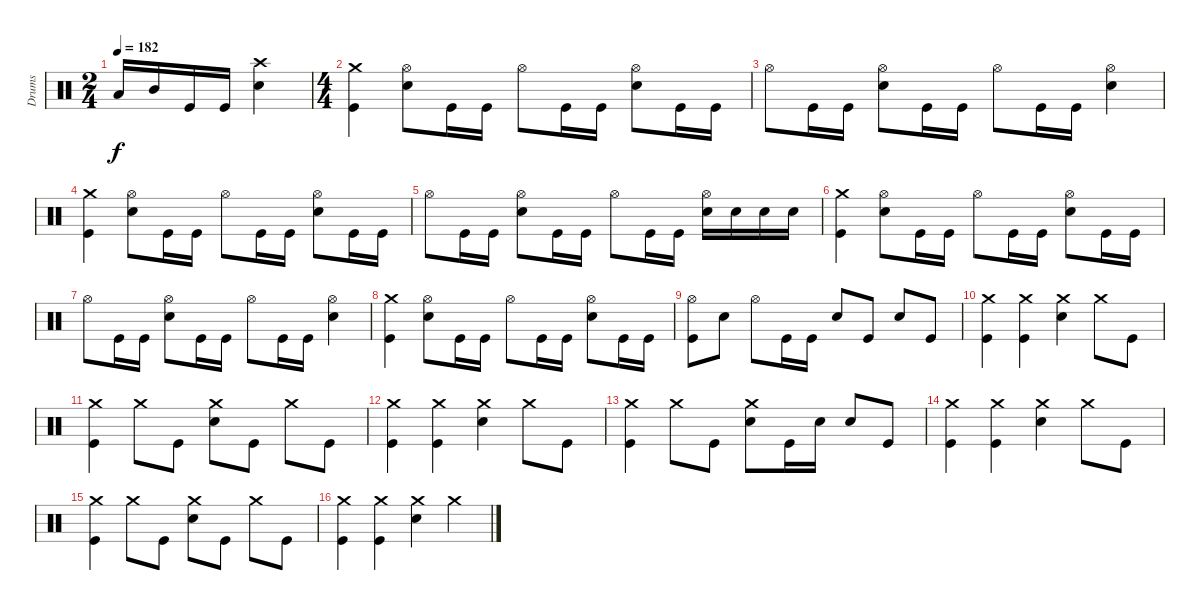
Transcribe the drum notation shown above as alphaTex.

\track ("Drums" "Drums") {instrument percussion}
\staff {score}
\articulation defaults
\ts (2 4)
\tempo 182
\clef neutral
\ks c "Low Tom (hit)".16{dy f} "Mid Tom (hit)".16 "Kick (hit)".16 "Kick (hit)".16
("Crash high (hit)" "Electric Snare (hit)").4 |
\ts (4 4)
("Crash medium (hit)" "Kick (hit)").4 ("Hi-Hat (open)" "Electric Snare (hit)").8 "Kick (hit)".16 "Kick (hit)".16 "Hi-Hat (open)".8 "Kick (hit)".16 "Kick (hit)".16 ("Hi-Hat (open)" "Electric Snare (hit)").8 "Kick (hit)".16 "Kick (hit)".16 |
"Hi-Hat (open)".8 "Kick (hit)".16 "Kick (hit)".16 ("Hi-Hat (open)" "Electric Snare (hit)").8 "Kick (hit)".16 "Kick (hit)".16 "Hi-Hat (open)".8 "Kick (hit)".16 "Kick (hit)".16 ("Hi-Hat (open)" "Electric Snare (hit)").4 |
("Crash medium (hit)" "Kick (hit)").4 ("Hi-Hat (open)" "Electric Snare (hit)").8 "Kick (hit)".16 "Kick (hit)".16 "Hi-Hat (open)".8 "Kick (hit)".16 "Kick (hit)".16 ("Hi-Hat (open)" "Electric Snare (hit)").8 "Kick (hit)".16 "Kick (hit)".16 |
"Hi-Hat (open)".8 "Kick (hit)".16 "Kick (hit)".16 ("Hi-Hat (open)" "Electric Snare (hit)").8 "Kick (hit)".16 "Kick (hit)".16 "Hi-Hat (open)".8 "Kick (hit)".16 "Kick (hit)".16 ("Hi-Hat (open)" "Electric Snare (hit)").16 "Electric Snare (hit)".16 "Electric Snare (hit)".16 "Electric Snare (hit)".16 |
("Crash medium (hit)" "Kick (hit)").4 ("Hi-Hat (open)" "Electric Snare (hit)").8 "Kick (hit)".16 "Kick (hit)".16 "Hi-Hat (open)".8 "Kick (hit)".16 "Kick (hit)".16 ("Hi-Hat (open)" "Electric Snare (hit)").8 "Kick (hit)".16 "Kick (hit)".16 |
"Hi-Hat (open)".8 "Kick (hit)".16 "Kick (hit)".16 ("Hi-Hat (open)" "Electric Snare (hit)").8 "Kick (hit)".16 "Kick (hit)".16 "Hi-Hat (open)".8 "Kick (hit)".16 "Kick (hit)".16 ("Hi-Hat (open)" "Electric Snare (hit)").4 |
("Crash medium (hit)" "Kick (hit)").4 ("Hi-Hat (open)" "Electric Snare (hit)").8 "Kick (hit)".16 "Kick (hit)".16 "Hi-Hat (open)".8 "Kick (hit)".16 "Kick (hit)".16 ("Hi-Hat (open)" "Electric Snare (hit)").8 "Kick (hit)".16 "Kick (hit)".16 |
("Hi-Hat (open)" "Kick (hit)").8 "Electric Snare (hit)".8 "Hi-Hat (open)".8 "Kick (hit)".16 "Kick (hit)".16 "Electric Snare (hit)".8 "Kick (hit)".8 "Electric Snare (hit)".8 "Kick (hit)".8 |
("Crash medium (hit)" "Kick (hit)").4 ("Crash medium (hit)" "Kick (hit)").4 ("Crash medium (hit)" "Electric Snare (hit)").4 "Crash medium (hit)".8 "Kick (hit)".8 |
("Crash medium (hit)" "Kick (hit)").4 "Crash medium (hit)".8 "Kick (hit)".8 ("Crash medium (hit)" "Electric Snare (hit)").8 "Kick (hit)".8 "Crash medium (hit)".8 "Kick (hit)".8 |
("Crash medium (hit)" "Kick (hit)").4 ("Crash medium (hit)" "Kick (hit)").4 ("Crash medium (hit)" "Electric Snare (hit)").4 "Crash medium (hit)".8 "Kick (hit)".8 |
("Crash medium (hit)" "Kick (hit)").4 "Crash medium (hit)".8 "Kick (hit)".8 ("Crash medium (hit)" "Electric Snare (hit)").8 "Kick (hit)".16 "Electric Snare (hit)".16 "Electric Snare (hit)".8 "Kick (hit)".8 |
("Crash medium (hit)" "Kick (hit)").4 ("Crash medium (hit)" "Kick (hit)").4 ("Crash medium (hit)" "Electric Snare (hit)").4 "Crash medium (hit)".8 "Kick (hit)".8 |
("Crash medium (hit)" "Kick (hit)").4 "Crash medium (hit)".8 "Kick (hit)".8 ("Crash medium (hit)" "Electric Snare (hit)").8 "Kick (hit)".8 "Crash medium (hit)".8 "Kick (hit)".8 |
("Crash medium (hit)" "Kick (hit)").4 ("Crash medium (hit)" "Kick (hit)").4 ("Crash medium (hit)" "Electric Snare (hit)").4 "Crash medium (hit)".4
